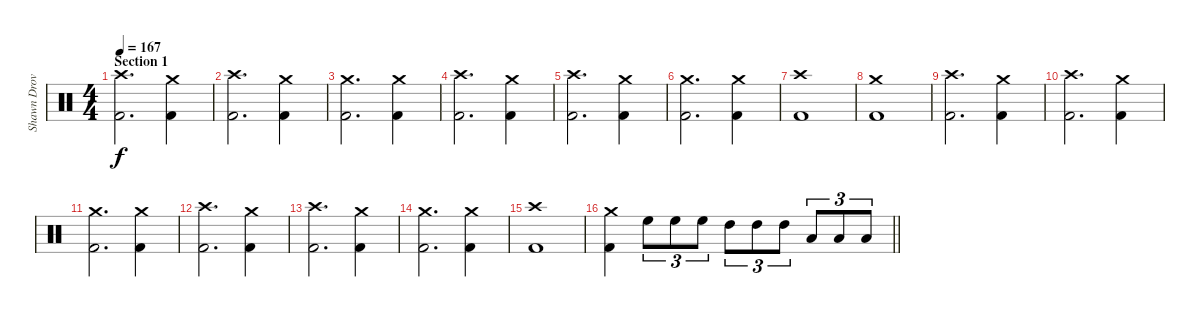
\track ("Shawn Drover" "Shawn Drov") {instrument percussion}
\staff {score}
\articulation defaults
\ts (4 4)
\section ("" "Section 1")
\tempo 167
\clef neutral
\ks c
("Kick (hit) 2" "Crash high (hit)").2{d dy f} ("Kick (hit) 2" "Crash medium (hit)").4 |
("Kick (hit) 2" "Crash high (hit)").2{d} ("Kick (hit) 2" "Crash medium (hit)").4 |
("Kick (hit) 2" "Crash medium (hit)").2{d} ("Kick (hit) 2" "Crash medium (hit)").4 |
("Kick (hit) 2" "Crash high (hit)").2{d} ("Kick (hit) 2" "Crash medium (hit)").4 |
("Kick (hit) 2" "Crash high (hit)").2{d} ("Kick (hit) 2" "Crash medium (hit)").4 |
("Kick (hit) 2" "Crash medium (hit)").2{d} ("Kick (hit) 2" "Crash medium (hit)").4 |
("Kick (hit) 2" "Crash high (hit)").1 |
("Kick (hit) 2" "Crash medium (hit)").1 |
("Kick (hit) 2" "Crash high (hit)").2{d} ("Kick (hit) 2" "Crash medium (hit)").4 |
("Kick (hit) 2" "Crash high (hit)").2{d} ("Kick (hit) 2" "Crash medium (hit)").4 |
("Kick (hit) 2" "Crash medium (hit)").2{d} ("Kick (hit) 2" "Crash medium (hit)").4 |
("Kick (hit) 2" "Crash high (hit)").2{d} ("Kick (hit) 2" "Crash medium (hit)").4 |
("Kick (hit) 2" "Crash high (hit)").2{d} ("Kick (hit) 2" "Crash medium (hit)").4 |
("Kick (hit) 2" "Crash medium (hit)").2{d} ("Kick (hit) 2" "Crash medium (hit)").4 |
("Kick (hit) 2" "Crash high (hit)").1 |
\barLineRight lightlight
("Kick (hit) 2" "Crash medium (hit)").4 "High Floor Tom (hit)".8{tu (3 2)} "High Floor Tom (hit)".8{tu (3 2)} "High Floor Tom (hit)".8{tu (3 2)} "High Tom (hit)".8{tu (3 2)} "High Tom (hit)".8{tu (3 2)} "High Tom (hit)".8{tu (3 2)} "Low Tom (hit)".8{tu (3 2)} "Low Tom (hit)".8{tu (3 2)} "Low Tom (hit)".8{tu (3 2)}
